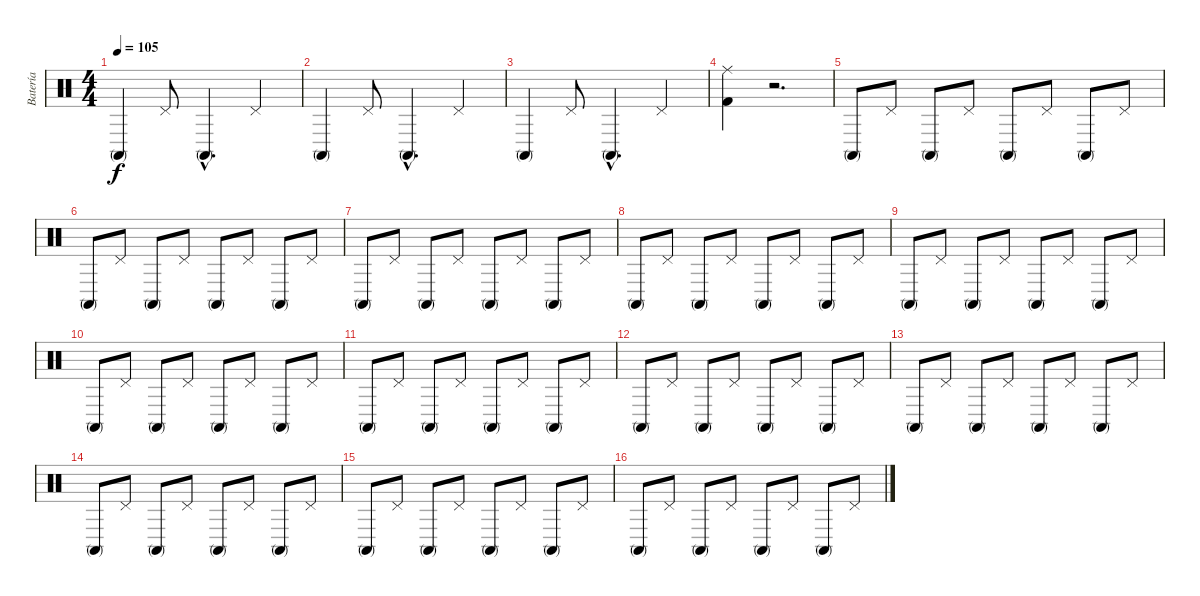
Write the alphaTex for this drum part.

\track ("Batería" "Batería") {instrument percussion}
\staff {score}
\articulation defaults
\ts (4 4)
\tempo 105
\clef neutral
\ks c "Conga high (mute)".4{dy f} "Pedal Hi-Hat (hit)".8 "Conga high (mute)"{hac}.4{d} "Pedal Hi-Hat (hit)".4
|
"Conga high (mute)".4 "Pedal Hi-Hat (hit)".8 "Conga high (mute)"{hac}.4{d} "Pedal Hi-Hat (hit)".4 |
"Conga high (mute)".4 "Pedal Hi-Hat (hit)".8 "Conga high (mute)"{hac}.4{d} "Pedal Hi-Hat (hit)".4 |
("Kick (hit) 2" "Ride (middle)").4 r.2{d} |
"Conga high (mute)".8 "Pedal Hi-Hat (hit)".8 "Conga high (mute)".8 "Pedal Hi-Hat (hit)".8 "Conga high (mute)".8 "Pedal Hi-Hat (hit)".8 "Conga high (mute)".8 "Pedal Hi-Hat (hit)".8 |
"Conga high (mute)".8 "Pedal Hi-Hat (hit)".8 "Conga high (mute)".8 "Pedal Hi-Hat (hit)".8 "Conga high (mute)".8 "Pedal Hi-Hat (hit)".8 "Conga high (mute)".8 "Pedal Hi-Hat (hit)".8 |
"Conga high (mute)".8 "Pedal Hi-Hat (hit)".8 "Conga high (mute)".8 "Pedal Hi-Hat (hit)".8 "Conga high (mute)".8 "Pedal Hi-Hat (hit)".8 "Conga high (mute)".8 "Pedal Hi-Hat (hit)".8 |
"Conga high (mute)".8 "Pedal Hi-Hat (hit)".8 "Conga high (mute)".8 "Pedal Hi-Hat (hit)".8 "Conga high (mute)".8 "Pedal Hi-Hat (hit)".8 "Conga high (mute)".8 "Pedal Hi-Hat (hit)".8 |
"Conga high (mute)".8 "Pedal Hi-Hat (hit)".8 "Conga high (mute)".8 "Pedal Hi-Hat (hit)".8 "Conga high (mute)".8 "Pedal Hi-Hat (hit)".8 "Conga high (mute)".8 "Pedal Hi-Hat (hit)".8 |
"Conga high (mute)".8 "Pedal Hi-Hat (hit)".8 "Conga high (mute)".8 "Pedal Hi-Hat (hit)".8 "Conga high (mute)".8 "Pedal Hi-Hat (hit)".8 "Conga high (mute)".8 "Pedal Hi-Hat (hit)".8 |
"Conga high (mute)".8 "Pedal Hi-Hat (hit)".8 "Conga high (mute)".8 "Pedal Hi-Hat (hit)".8 "Conga high (mute)".8 "Pedal Hi-Hat (hit)".8 "Conga high (mute)".8 "Pedal Hi-Hat (hit)".8 |
"Conga high (mute)".8 "Pedal Hi-Hat (hit)".8 "Conga high (mute)".8 "Pedal Hi-Hat (hit)".8 "Conga high (mute)".8 "Pedal Hi-Hat (hit)".8 "Conga high (mute)".8 "Pedal Hi-Hat (hit)".8 |
"Conga high (mute)".8 "Pedal Hi-Hat (hit)".8 "Conga high (mute)".8 "Pedal Hi-Hat (hit)".8 "Conga high (mute)".8 "Pedal Hi-Hat (hit)".8 "Conga high (mute)".8 "Pedal Hi-Hat (hit)".8 |
"Conga high (mute)".8 "Pedal Hi-Hat (hit)".8 "Conga high (mute)".8 "Pedal Hi-Hat (hit)".8 "Conga high (mute)".8 "Pedal Hi-Hat (hit)".8 "Conga high (mute)".8 "Pedal Hi-Hat (hit)".8 |
"Conga high (mute)".8 "Pedal Hi-Hat (hit)".8 "Conga high (mute)".8 "Pedal Hi-Hat (hit)".8 "Conga high (mute)".8 "Pedal Hi-Hat (hit)".8 "Conga high (mute)".8 "Pedal Hi-Hat (hit)".8 |
"Conga high (mute)".8 "Pedal Hi-Hat (hit)".8 "Conga high (mute)".8 "Pedal Hi-Hat (hit)".8 "Conga high (mute)".8 "Pedal Hi-Hat (hit)".8 "Conga high (mute)".8 "Pedal Hi-Hat (hit)".8
